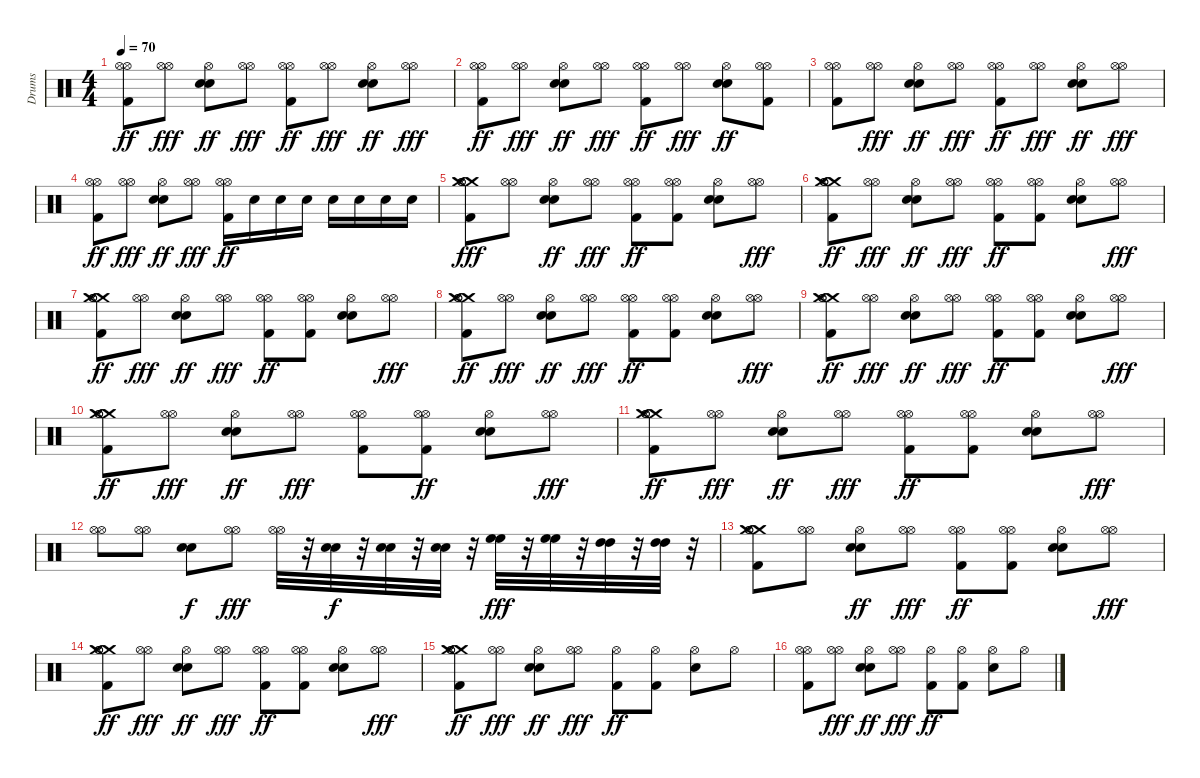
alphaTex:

\track ("Drums" "Drums") {instrument percussion}
\staff {score}
\articulation defaults
\ts (4 4)
\tempo 70
\clef neutral
\ks c
("Hi-Hat (open)" "Hi-Hat (open)" "Kick (hit) 2").8{dy ff} ("Hi-Hat (open)" "Hi-Hat (open)").8{dy fff} ("Hi-Hat (open)" "Electric Snare (hit)" "Electric Snare (hit)").8{dy ff} ("Hi-Hat (open)" "Hi-Hat (open)").8{dy fff} ("Hi-Hat (open)" "Hi-Hat (open)" "Kick (hit) 2").8{dy ff} ("Hi-Hat (open)" "Hi-Hat (open)").8{dy fff} ("Hi-Hat (open)" "Electric Snare (hit)" "Electric Snare (hit)").8{dy ff} ("Hi-Hat (open)" "Hi-Hat (open)").8{dy fff} |
("Hi-Hat (open)" "Hi-Hat (open)" "Kick (hit) 2").8{dy ff} ("Hi-Hat (open)" "Hi-Hat (open)").8{dy fff} ("Hi-Hat (open)" "Electric Snare (hit)" "Electric Snare (hit)").8{dy ff} ("Hi-Hat (open)" "Hi-Hat (open)").8{dy fff} ("Hi-Hat (open)" "Hi-Hat (open)" "Kick (hit) 2").8{dy ff} ("Hi-Hat (open)" "Hi-Hat (open)").8{dy fff} ("Hi-Hat (open)" "Electric Snare (hit)" "Electric Snare (hit)").8{dy ff} ("Hi-Hat (open)" "Hi-Hat (open)" "Kick (hit) 2").8 |
("Hi-Hat (open)" "Hi-Hat (open)" "Kick (hit) 2").8 ("Hi-Hat (open)" "Hi-Hat (open)").8{dy fff} ("Hi-Hat (open)" "Electric Snare (hit)" "Electric Snare (hit)").8{dy ff} ("Hi-Hat (open)" "Hi-Hat (open)").8{dy fff} ("Hi-Hat (open)" "Hi-Hat (open)" "Kick (hit) 2").8{dy ff} ("Hi-Hat (open)" "Hi-Hat (open)").8{dy fff} ("Hi-Hat (open)" "Electric Snare (hit)" "Electric Snare (hit)").8{dy ff} ("Hi-Hat (open)" "Hi-Hat (open)").8{dy fff} |
("Hi-Hat (open)" "Hi-Hat (open)" "Kick (hit) 2").8{dy ff} ("Hi-Hat (open)" "Hi-Hat (open)").8{dy fff} ("Hi-Hat (open)" "Electric Snare (hit)" "Electric Snare (hit)").8{dy ff} ("Hi-Hat (open)" "Hi-Hat (open)").8{dy fff} ("Hi-Hat (open)" "Hi-Hat (open)" "Kick (hit) 2").16{dy ff} "Electric Snare (hit)".16 "Electric Snare (hit)".16 "Electric Snare (hit)".16 "Electric Snare (hit)".16 "Electric Snare (hit)".16 "Electric Snare (hit)".16 "Electric Snare (hit)".16 |
("Crash medium (hit)" "Crash medium (hit)" "Kick (hit) 2" "Hi-Hat (open)" "Hi-Hat (open)").8{dy fff} ("Hi-Hat (open)" "Hi-Hat (open)").8 ("Hi-Hat (open)" "Electric Snare (hit)" "Electric Snare (hit)").8{dy ff} ("Hi-Hat (open)" "Hi-Hat (open)").8{dy fff} ("Hi-Hat (open)" "Hi-Hat (open)" "Kick (hit) 2").8{dy ff} ("Hi-Hat (open)" "Hi-Hat (open)" "Kick (hit) 2").8 ("Hi-Hat (open)" "Electric Snare (hit)" "Electric Snare (hit)").8 ("Hi-Hat (open)" "Hi-Hat (open)").8{dy fff} |
("Crash medium (hit)" "Crash medium (hit)" "Hi-Hat (open)" "Hi-Hat (open)" "Kick (hit) 2").8{dy ff} ("Hi-Hat (open)" "Hi-Hat (open)").8{dy fff} ("Hi-Hat (open)" "Electric Snare (hit)" "Electric Snare (hit)").8{dy ff} ("Hi-Hat (open)" "Hi-Hat (open)").8{dy fff} ("Hi-Hat (open)" "Hi-Hat (open)" "Kick (hit) 2").8{dy ff} ("Hi-Hat (open)" "Hi-Hat (open)" "Kick (hit) 2").8 ("Hi-Hat (open)" "Electric Snare (hit)" "Electric Snare (hit)").8 ("Hi-Hat (open)" "Hi-Hat (open)").8{dy fff} |
("Crash medium (hit)" "Crash medium (hit)" "Hi-Hat (open)" "Hi-Hat (open)" "Kick (hit) 2").8{dy ff} ("Hi-Hat (open)" "Hi-Hat (open)").8{dy fff} ("Hi-Hat (open)" "Electric Snare (hit)" "Electric Snare (hit)").8{dy ff} ("Hi-Hat (open)" "Hi-Hat (open)").8{dy fff} ("Hi-Hat (open)" "Hi-Hat (open)" "Kick (hit) 2").8{dy ff} ("Hi-Hat (open)" "Hi-Hat (open)" "Kick (hit) 2").8 ("Hi-Hat (open)" "Electric Snare (hit)" "Electric Snare (hit)").8 ("Hi-Hat (open)" "Hi-Hat (open)").8{dy fff} |
("Crash medium (hit)" "Crash medium (hit)" "Hi-Hat (open)" "Hi-Hat (open)" "Kick (hit) 2").8{dy ff} ("Hi-Hat (open)" "Hi-Hat (open)").8{dy fff} ("Hi-Hat (open)" "Electric Snare (hit)" "Electric Snare (hit)").8{dy ff} ("Hi-Hat (open)" "Hi-Hat (open)").8{dy fff} ("Hi-Hat (open)" "Hi-Hat (open)" "Kick (hit) 2").8{dy ff} ("Hi-Hat (open)" "Hi-Hat (open)" "Kick (hit) 2").8 ("Hi-Hat (open)" "Electric Snare (hit)" "Electric Snare (hit)").8 ("Hi-Hat (open)" "Hi-Hat (open)").8{dy fff} |
("Crash medium (hit)" "Crash medium (hit)" "Hi-Hat (open)" "Hi-Hat (open)" "Kick (hit) 2").8{dy ff} ("Hi-Hat (open)" "Hi-Hat (open)").8{dy fff} ("Hi-Hat (open)" "Electric Snare (hit)" "Electric Snare (hit)").8{dy ff} ("Hi-Hat (open)" "Hi-Hat (open)").8{dy fff} ("Hi-Hat (open)" "Hi-Hat (open)" "Kick (hit) 2").8{dy ff} ("Hi-Hat (open)" "Hi-Hat (open)" "Kick (hit) 2").8 ("Hi-Hat (open)" "Electric Snare (hit)" "Electric Snare (hit)").8 ("Hi-Hat (open)" "Hi-Hat (open)").8{dy fff} |
("Crash medium (hit)" "Crash medium (hit)" "Hi-Hat (open)" "Hi-Hat (open)" "Kick (hit) 2").8{dy ff} ("Hi-Hat (open)" "Hi-Hat (open)").8{dy fff} ("Hi-Hat (open)" "Electric Snare (hit)" "Electric Snare (hit)").8{dy ff} ("Hi-Hat (open)" "Hi-Hat (open)").8{dy fff} ("Kick (hit) 2" "Hi-Hat (open)" "Hi-Hat (open)").8 ("Hi-Hat (open)" "Hi-Hat (open)" "Kick (hit) 2").8{dy ff} ("Hi-Hat (open)" "Electric Snare (hit)" "Electric Snare (hit)").8 ("Hi-Hat (open)" "Hi-Hat (open)").8{dy fff} |
("Crash medium (hit)" "Crash medium (hit)" "Hi-Hat (open)" "Hi-Hat (open)" "Kick (hit) 2").8{dy ff} ("Hi-Hat (open)" "Hi-Hat (open)").8{dy fff} ("Hi-Hat (open)" "Electric Snare (hit)" "Electric Snare (hit)").8{dy ff} ("Hi-Hat (open)" "Hi-Hat (open)").8{dy fff} ("Hi-Hat (open)" "Hi-Hat (open)" "Kick (hit) 2").8{dy ff} ("Hi-Hat (open)" "Hi-Hat (open)" "Kick (hit) 2").8 ("Hi-Hat (open)" "Electric Snare (hit)" "Electric Snare (hit)").8 ("Hi-Hat (open)" "Hi-Hat (open)").8{dy fff} |
("Hi-Hat (open)" "Hi-Hat (open)").8 ("Hi-Hat (open)" "Hi-Hat (open)").8 ("Electric Snare (hit)" "Electric Snare (hit)").8{dy f} ("Hi-Hat (open)" "Hi-Hat (open)").8{dy fff} ("Hi-Hat (open)" "Hi-Hat (open)").32 r.32 ("Electric Snare (hit)" "Electric Snare (hit)").32{dy f} r.32 ("Electric Snare (hit)" "Electric Snare (hit)").32 r.32 ("Electric Snare (hit)" "Electric Snare (hit)").32 r.32 ("High Floor Tom (hit)" "High Floor Tom (hit)").32{dy fff} r.32 ("High Floor Tom (hit)" "High Floor Tom (hit)").32 r.32 ("High Tom (hit)" "High Tom (hit)").32 r.32 ("High Tom (hit)" "High Tom (hit)").32 r.32 |
("Crash medium (hit)" "Crash medium (hit)" "Kick (hit) 2" "Hi-Hat (open)" "Hi-Hat (open)").8 ("Hi-Hat (open)" "Hi-Hat (open)").8 ("Hi-Hat (open)" "Electric Snare (hit)" "Electric Snare (hit)").8{dy ff} ("Hi-Hat (open)" "Hi-Hat (open)").8{dy fff} ("Hi-Hat (open)" "Hi-Hat (open)" "Kick (hit) 2").8{dy ff} ("Hi-Hat (open)" "Hi-Hat (open)" "Kick (hit) 2").8 ("Hi-Hat (open)" "Electric Snare (hit)" "Electric Snare (hit)").8 ("Hi-Hat (open)" "Hi-Hat (open)").8{dy fff} |
("Crash medium (hit)" "Crash medium (hit)" "Hi-Hat (open)" "Hi-Hat (open)" "Kick (hit) 2").8{dy ff} ("Hi-Hat (open)" "Hi-Hat (open)").8{dy fff} ("Hi-Hat (open)" "Electric Snare (hit)" "Electric Snare (hit)").8{dy ff} ("Hi-Hat (open)" "Hi-Hat (open)").8{dy fff} ("Hi-Hat (open)" "Hi-Hat (open)" "Kick (hit) 2").8{dy ff} ("Hi-Hat (open)" "Hi-Hat (open)" "Kick (hit) 2").8 ("Hi-Hat (open)" "Electric Snare (hit)" "Electric Snare (hit)").8 ("Hi-Hat (open)" "Hi-Hat (open)").8{dy fff} |
("Crash medium (hit)" "Crash medium (hit)" "Hi-Hat (open)" "Hi-Hat (open)" "Kick (hit) 2").8{dy ff} ("Hi-Hat (open)" "Hi-Hat (open)").8{dy fff} ("Hi-Hat (open)" "Electric Snare (hit)" "Electric Snare (hit)").8{dy ff} ("Hi-Hat (open)" "Hi-Hat (open)").8{dy fff} ("Kick (hit) 2" "Hi-Hat (open)").8{dy ff} ("Kick (hit) 2" "Hi-Hat (open)").8 ("Hi-Hat (open)" "Electric Snare (hit)").8 "Hi-Hat (open)".8 |
("Hi-Hat (open)" "Hi-Hat (open)" "Kick (hit) 2").8 ("Hi-Hat (open)" "Hi-Hat (open)").8{dy fff} ("Hi-Hat (open)" "Electric Snare (hit)" "Electric Snare (hit)").8{dy ff} ("Hi-Hat (open)" "Hi-Hat (open)").8{dy fff} ("Hi-Hat (open)" "Kick (hit) 2").8{dy ff} ("Hi-Hat (open)" "Kick (hit) 2").8 ("Hi-Hat (open)" "Electric Snare (hit)").8 "Hi-Hat (open)".8
